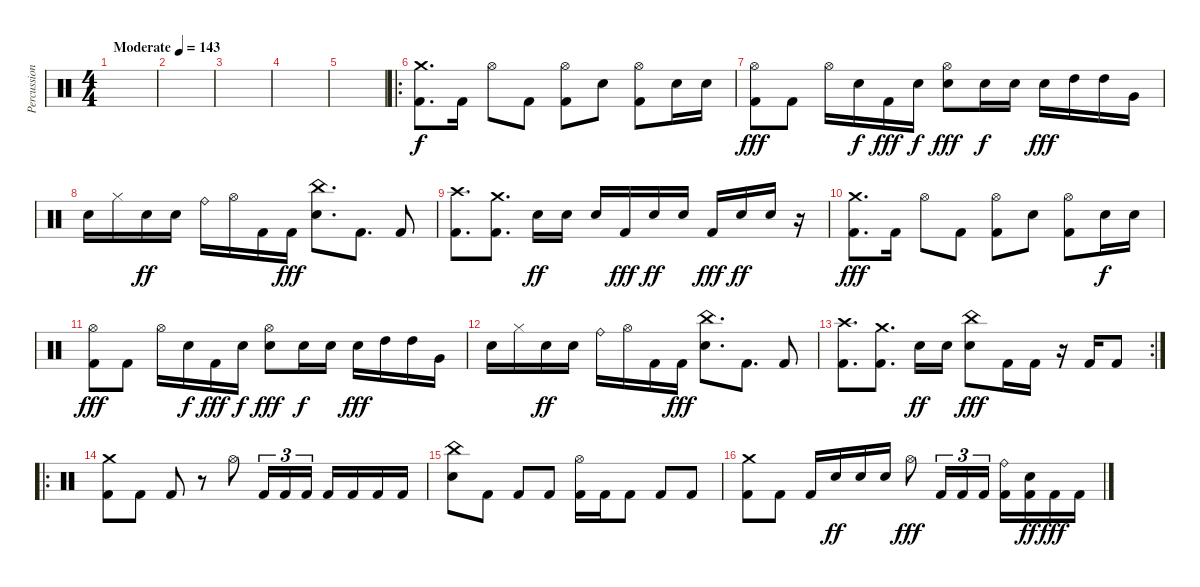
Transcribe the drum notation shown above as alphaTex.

\track ("Percussion" "Percussion") {instrument percussion}
\staff {score}
\articulation defaults
\ts (4 4)
\tempo (143 "Moderate")
\clef neutral
\ks c
|
|
|
|
|
\ro
("Crash medium (hit)" "Kick (hit) 2").8{d} "Kick (hit) 2".16 "Hi-Hat (open)".8 "Kick (hit) 2".8 ("Kick (hit) 2" "Hi-Hat (open)").8 "Electric Snare (hit)".8 ("Kick (hit) 2" "Hi-Hat (open)").8 "Electric Snare (hit)".16{dy f} "Electric Snare (hit)".16 |
("Kick (hit) 2" "Hi-Hat (open)").8{dy fff} "Kick (hit) 2".8 "Hi-Hat (open)".16 "Electric Snare (hit)".16{dy f} "Kick (hit) 2".16{dy fff} "Electric Snare (hit)".16{dy f} ("Electric Snare (hit)" "Hi-Hat (open)").8{dy fff} "Electric Snare (hit)".16{dy f} "Electric Snare (hit)".16 "Electric Snare (hit)".16{dy fff} "High Tom (hit)".16 "High Tom (hit)".16 "Very Low Tom (hit)".16 |
"Electric Snare (hit)".16 "Hi-Hat (closed)".16 "Electric Snare (hit)".16{dy ff} "Electric Snare (hit)".16 "Ride (bell)".16 "Hi-Hat (open)".16 "Kick (hit) 2".16 "Kick (hit) 2".16{dy fff} ("China (hit)" "Electric Snare (hit)").8{d} "Kick (hit) 2".8{d} "Kick (hit) 2".8 |
("Crash high (hit)" "Kick (hit) 2").8{d} ("Crash medium (hit)" "Kick (hit) 2").8{d} "Electric Snare (hit)".16{dy ff} "Electric Snare (hit)".16 "Electric Snare (hit)".16 "Kick (hit) 2".16{dy fff} "Electric Snare (hit)".16{dy ff} "Electric Snare (hit)".16 "Kick (hit) 2".16{dy fff} "Electric Snare (hit)".16{dy ff} "Electric Snare (hit)".16 r.16 |
("Crash medium (hit)" "Kick (hit) 2").8{d dy fff} "Kick (hit) 2".16 "Hi-Hat (open)".8 "Kick (hit) 2".8 ("Kick (hit) 2" "Hi-Hat (open)").8 "Electric Snare (hit)".8 ("Kick (hit) 2" "Hi-Hat (open)").8 "Electric Snare (hit)".16{dy f} "Electric Snare (hit)".16 |
("Kick (hit) 2" "Hi-Hat (open)").8{dy fff} "Kick (hit) 2".8 "Hi-Hat (open)".16 "Electric Snare (hit)".16{dy f} "Kick (hit) 2".16{dy fff} "Electric Snare (hit)".16{dy f} ("Electric Snare (hit)" "Hi-Hat (open)").8{dy fff} "Electric Snare (hit)".16{dy f} "Electric Snare (hit)".16 "Electric Snare (hit)".16{dy fff} "High Tom (hit)".16 "High Tom (hit)".16 "Very Low Tom (hit)".16 |
"Electric Snare (hit)".16 "Hi-Hat (closed)".16 "Electric Snare (hit)".16{dy ff} "Electric Snare (hit)".16 "Ride (bell)".16 "Hi-Hat (open)".16 "Kick (hit) 2".16 "Kick (hit) 2".16{dy fff} ("China (hit)" "Electric Snare (hit)").8{d} "Kick (hit) 2".8{d} "Kick (hit) 2".8 |
\rc 2
("Crash high (hit)" "Kick (hit) 2").8{d} ("Crash medium (hit)" "Kick (hit) 2").8{d} "Electric Snare (hit)".16{dy ff} "Electric Snare (hit)".16 ("China (hit)" "Electric Snare (hit)").8{dy fff} "Kick (hit) 2".16 "Kick (hit) 2".16 r.16 "Kick (hit) 2".16 "Kick (hit) 2".8 |
\ro
("Crash medium (hit)" "Kick (hit) 2").8 "Kick (hit) 2".8 "Kick (hit) 2".8 r.8 "Hi-Hat (open)".8 "Kick (hit) 2".16{tu (3 2)} "Kick (hit) 2".16{tu (3 2)} "Kick (hit) 2".16{tu (3 2)} "Kick (hit) 2".16 "Kick (hit) 2".16 "Kick (hit) 2".16 "Kick (hit) 2".16 |
("Electric Snare (hit)" "China (hit)").8 "Kick (hit) 2".8 "Kick (hit) 2".8 "Kick (hit) 2".8 ("Kick (hit) 2" "Hi-Hat (open)").16 "Kick (hit) 2".16 "Kick (hit) 2".8 "Kick (hit) 2".8 "Kick (hit) 2".8 |
("Crash medium (hit)" "Kick (hit) 2").8 "Kick (hit) 2".8 "Kick (hit) 2".16 "Electric Snare (hit)".16{dy ff} "Electric Snare (hit)".16 "Electric Snare (hit)".16 "Hi-Hat (open)".8{dy fff} "Kick (hit) 2".16{tu (3 2)} "Kick (hit) 2".16{tu (3 2)} "Kick (hit) 2".16{tu (3 2)} ("Kick (hit) 2" "Ride (bell)").16 ("Kick (hit) 2" "Electric Snare (hit)").16{dy ff} "Kick (hit) 2".16{dy fff} "Kick (hit) 2".16
